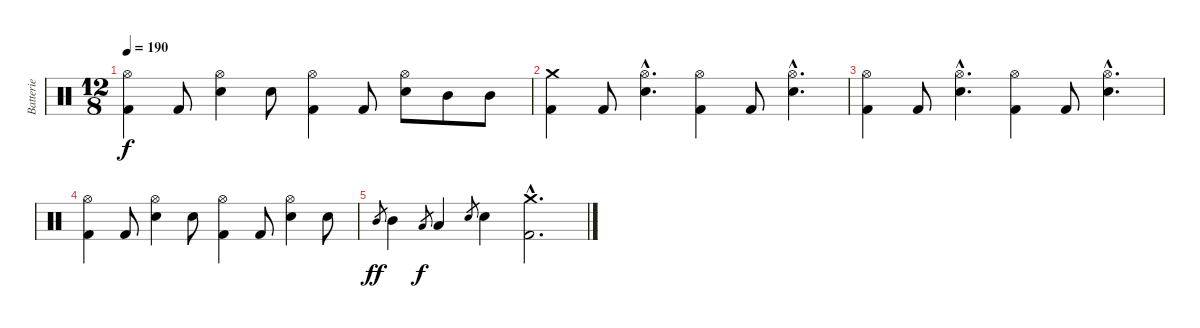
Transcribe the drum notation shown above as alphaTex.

\track ("Batterie" "Batterie") {instrument percussion}
\staff {score}
\articulation defaults
\ts (12 8)
\tempo 190
\clef neutral
\ks c
("Hi-Hat (open)" "Kick (hit) 2").4{dy f} "Kick (hit) 2".8 ("Hi-Hat (open)" "Snare (hit) 2").4 "Snare (hit) 2".8 ("Hi-Hat (open)" "Kick (hit) 2").4 "Kick (hit) 2".8 ("Hi-Hat (open)" "Snare (hit) 2").8 "Mid Tom (hit)".8 "Mid Tom (hit)".8 |
("Crash medium (hit)" "Kick (hit) 2").4 "Kick (hit) 2".8 ("Hi-Hat (open)"{hac} "Snare (hit) 2"{hac}).4{d} ("Hi-Hat (open)" "Kick (hit) 2").4 "Kick (hit) 2".8 ("Hi-Hat (open)"{hac} "Snare (hit) 2"{hac}).4{d} |
("Hi-Hat (open)" "Kick (hit) 2").4 "Kick (hit) 2".8 ("Hi-Hat (open)"{hac} "Snare (hit) 2"{hac}).4{d} ("Hi-Hat (open)" "Kick (hit) 2").4 "Kick (hit) 2".8 ("Hi-Hat (open)"{hac} "Snare (hit) 2"{hac}).4{d} |
("Hi-Hat (open)" "Kick (hit) 2").4 "Kick (hit) 2".8 ("Hi-Hat (open)" "Snare (hit) 2").4 "Snare (hit) 2".8 ("Hi-Hat (open)" "Kick (hit) 2").4 "Kick (hit) 2".8 ("Hi-Hat (open)" "Snare (hit) 2").4 "Snare (hit) 2".8 |
"Mid Tom (hit)".8{gr dy ff} "Mid Tom (hit)".4 "Low Tom (hit)".8{gr dy f} "Low Tom (hit)".4 "Snare (hit) 2".8{gr} "Snare (hit) 2".4 ("Crash medium (hit)"{hac} "Kick (hit) 2"{hac}).2{d}
